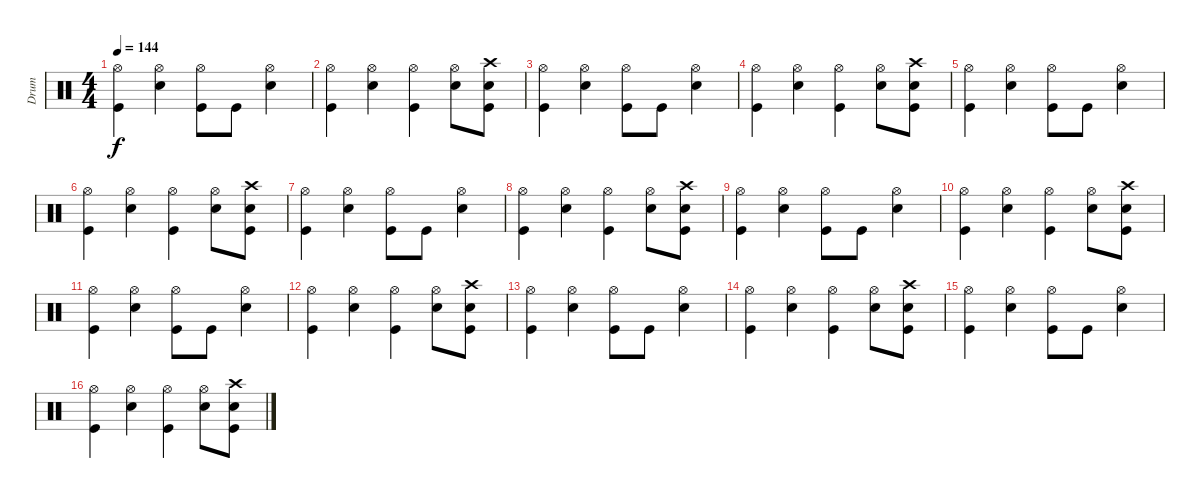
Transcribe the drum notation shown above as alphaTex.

\track ("Drum" "Drum") {instrument percussion}
\staff {score}
\articulation defaults
\ts (4 4)
\tempo 144
\clef neutral
\ks c
("Hi-Hat (open)" "Kick (hit)").4{dy f} ("Hi-Hat (open)" "Electric Snare (hit)").4 ("Hi-Hat (open)" "Kick (hit)").8 "Kick (hit)".8 ("Hi-Hat (open)" "Electric Snare (hit)").4 |
("Hi-Hat (open)" "Kick (hit)").4 ("Hi-Hat (open)" "Electric Snare (hit)").4 ("Hi-Hat (open)" "Kick (hit)").4 ("Hi-Hat (open)" "Electric Snare (hit)").8 ("Crash high (hit)" "Electric Snare (hit)" "Kick (hit)").8 |
("Hi-Hat (open)" "Kick (hit)").4 ("Hi-Hat (open)" "Electric Snare (hit)").4 ("Hi-Hat (open)" "Kick (hit)").8 "Kick (hit)".8 ("Hi-Hat (open)" "Electric Snare (hit)").4 |
("Hi-Hat (open)" "Kick (hit)").4 ("Hi-Hat (open)" "Electric Snare (hit)").4 ("Hi-Hat (open)" "Kick (hit)").4 ("Hi-Hat (open)" "Electric Snare (hit)").8 ("Crash high (hit)" "Electric Snare (hit)" "Kick (hit)").8 |
("Hi-Hat (open)" "Kick (hit)").4 ("Hi-Hat (open)" "Electric Snare (hit)").4 ("Hi-Hat (open)" "Kick (hit)").8 "Kick (hit)".8 ("Hi-Hat (open)" "Electric Snare (hit)").4 |
("Hi-Hat (open)" "Kick (hit)").4 ("Hi-Hat (open)" "Electric Snare (hit)").4 ("Hi-Hat (open)" "Kick (hit)").4 ("Hi-Hat (open)" "Electric Snare (hit)").8 ("Crash high (hit)" "Electric Snare (hit)" "Kick (hit)").8 |
("Hi-Hat (open)" "Kick (hit)").4 ("Hi-Hat (open)" "Electric Snare (hit)").4 ("Hi-Hat (open)" "Kick (hit)").8 "Kick (hit)".8 ("Hi-Hat (open)" "Electric Snare (hit)").4 |
("Hi-Hat (open)" "Kick (hit)").4 ("Hi-Hat (open)" "Electric Snare (hit)").4 ("Hi-Hat (open)" "Kick (hit)").4 ("Hi-Hat (open)" "Electric Snare (hit)").8 ("Crash high (hit)" "Electric Snare (hit)" "Kick (hit)").8 |
("Hi-Hat (open)" "Kick (hit)").4 ("Hi-Hat (open)" "Electric Snare (hit)").4 ("Hi-Hat (open)" "Kick (hit)").8 "Kick (hit)".8 ("Hi-Hat (open)" "Electric Snare (hit)").4 |
("Hi-Hat (open)" "Kick (hit)").4 ("Hi-Hat (open)" "Electric Snare (hit)").4 ("Hi-Hat (open)" "Kick (hit)").4 ("Hi-Hat (open)" "Electric Snare (hit)").8 ("Crash high (hit)" "Electric Snare (hit)" "Kick (hit)").8 |
("Hi-Hat (open)" "Kick (hit)").4 ("Hi-Hat (open)" "Electric Snare (hit)").4 ("Hi-Hat (open)" "Kick (hit)").8 "Kick (hit)".8 ("Hi-Hat (open)" "Electric Snare (hit)").4 |
("Hi-Hat (open)" "Kick (hit)").4 ("Hi-Hat (open)" "Electric Snare (hit)").4 ("Hi-Hat (open)" "Kick (hit)").4 ("Hi-Hat (open)" "Electric Snare (hit)").8 ("Crash high (hit)" "Electric Snare (hit)" "Kick (hit)").8 |
("Hi-Hat (open)" "Kick (hit)").4 ("Hi-Hat (open)" "Electric Snare (hit)").4 ("Hi-Hat (open)" "Kick (hit)").8 "Kick (hit)".8 ("Hi-Hat (open)" "Electric Snare (hit)").4 |
("Hi-Hat (open)" "Kick (hit)").4 ("Hi-Hat (open)" "Electric Snare (hit)").4 ("Hi-Hat (open)" "Kick (hit)").4 ("Hi-Hat (open)" "Electric Snare (hit)").8 ("Crash high (hit)" "Electric Snare (hit)" "Kick (hit)").8 |
("Hi-Hat (open)" "Kick (hit)").4 ("Hi-Hat (open)" "Electric Snare (hit)").4 ("Hi-Hat (open)" "Kick (hit)").8 "Kick (hit)".8 ("Hi-Hat (open)" "Electric Snare (hit)").4 |
("Hi-Hat (open)" "Kick (hit)").4 ("Hi-Hat (open)" "Electric Snare (hit)").4 ("Hi-Hat (open)" "Kick (hit)").4 ("Hi-Hat (open)" "Electric Snare (hit)").8 ("Crash high (hit)" "Electric Snare (hit)" "Kick (hit)").8
